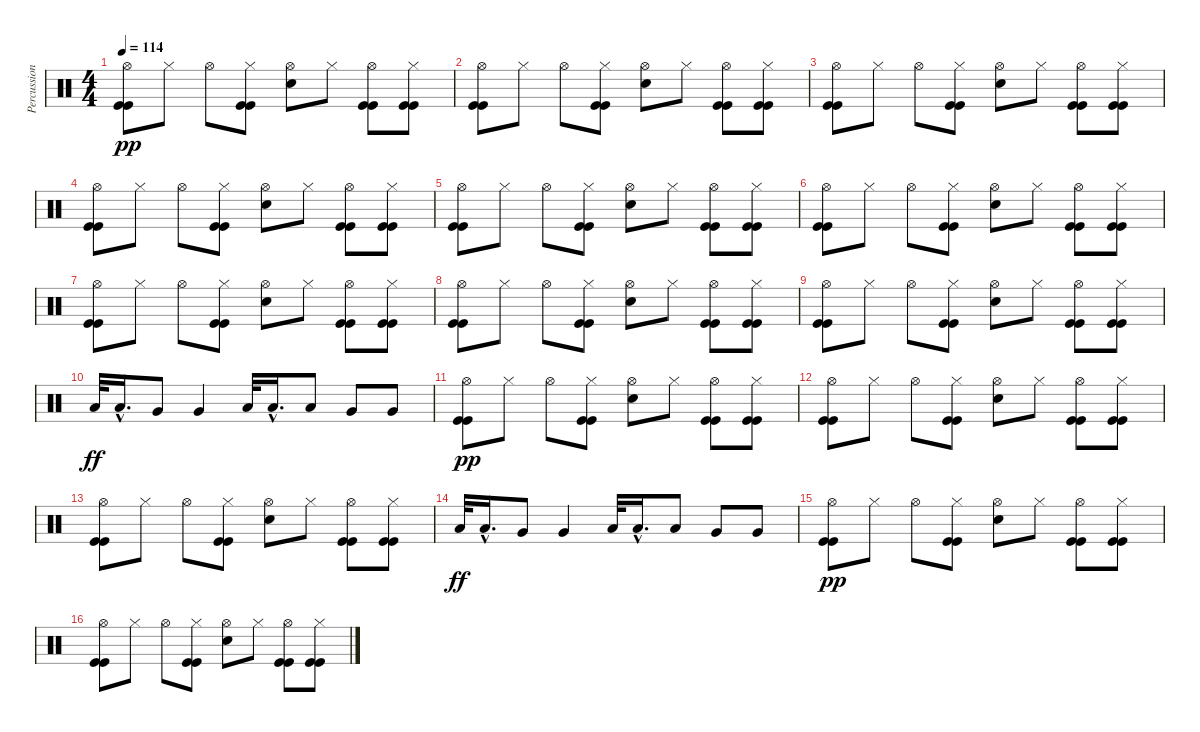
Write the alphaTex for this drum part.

\track ("Percussion" "Percussion") {instrument percussion}
\staff {score}
\articulation defaults
\ts (4 4)
\tempo 114
\clef neutral
\ks c
("Kick (hit)" "Hi-Hat (open)" "Kick (hit)").8{dy pp} "Hi-Hat (closed)".8 "Hi-Hat (open)".8 ("Kick (hit)" "Hi-Hat (closed)" "Kick (hit)").8 ("Snare (hit) 2" "Hi-Hat (open)").8 "Hi-Hat (closed)".8 ("Kick (hit)" "Hi-Hat (open)" "Kick (hit)").8 ("Kick (hit)" "Hi-Hat (closed)" "Kick (hit)").8 |
("Kick (hit)" "Hi-Hat (open)" "Kick (hit)").8 "Hi-Hat (closed)".8 "Hi-Hat (open)".8 ("Kick (hit)" "Hi-Hat (closed)" "Kick (hit)").8 ("Snare (hit) 2" "Hi-Hat (open)").8 "Hi-Hat (closed)".8 ("Kick (hit)" "Hi-Hat (open)" "Kick (hit)").8 ("Kick (hit)" "Hi-Hat (closed)" "Kick (hit)").8 |
("Kick (hit)" "Hi-Hat (open)" "Kick (hit)").8 "Hi-Hat (closed)".8 "Hi-Hat (open)".8 ("Kick (hit)" "Hi-Hat (closed)" "Kick (hit)").8 ("Snare (hit) 2" "Hi-Hat (open)").8 "Hi-Hat (closed)".8 ("Kick (hit)" "Hi-Hat (open)" "Kick (hit)").8 ("Kick (hit)" "Hi-Hat (closed)" "Kick (hit)").8 |
("Kick (hit)" "Hi-Hat (open)" "Kick (hit)").8 "Hi-Hat (closed)".8 "Hi-Hat (open)".8 ("Kick (hit)" "Hi-Hat (closed)" "Kick (hit)").8 ("Snare (hit) 2" "Hi-Hat (open)").8 "Hi-Hat (closed)".8 ("Kick (hit)" "Hi-Hat (open)" "Kick (hit)").8 ("Kick (hit)" "Hi-Hat (closed)" "Kick (hit)").8 |
("Kick (hit)" "Hi-Hat (open)" "Kick (hit)").8 "Hi-Hat (closed)".8 "Hi-Hat (open)".8 ("Kick (hit)" "Hi-Hat (closed)" "Kick (hit)").8 ("Snare (hit) 2" "Hi-Hat (open)").8 "Hi-Hat (closed)".8 ("Kick (hit)" "Hi-Hat (open)" "Kick (hit)").8 ("Kick (hit)" "Hi-Hat (closed)" "Kick (hit)").8 |
("Kick (hit)" "Hi-Hat (open)" "Kick (hit)").8 "Hi-Hat (closed)".8 "Hi-Hat (open)".8 ("Kick (hit)" "Hi-Hat (closed)" "Kick (hit)").8 ("Snare (hit) 2" "Hi-Hat (open)").8 "Hi-Hat (closed)".8 ("Kick (hit)" "Hi-Hat (open)" "Kick (hit)").8 ("Kick (hit)" "Hi-Hat (closed)" "Kick (hit)").8 |
("Kick (hit)" "Hi-Hat (open)" "Kick (hit)").8 "Hi-Hat (closed)".8 "Hi-Hat (open)".8 ("Kick (hit)" "Hi-Hat (closed)" "Kick (hit)").8 ("Snare (hit) 2" "Hi-Hat (open)").8 "Hi-Hat (closed)".8 ("Kick (hit)" "Hi-Hat (open)" "Kick (hit)").8 ("Kick (hit)" "Hi-Hat (closed)" "Kick (hit)").8 |
("Kick (hit)" "Hi-Hat (open)" "Kick (hit)").8 "Hi-Hat (closed)".8 "Hi-Hat (open)".8 ("Kick (hit)" "Hi-Hat (closed)" "Kick (hit)").8 ("Snare (hit) 2" "Hi-Hat (open)").8 "Hi-Hat (closed)".8 ("Kick (hit)" "Hi-Hat (open)" "Kick (hit)").8 ("Kick (hit)" "Hi-Hat (closed)" "Kick (hit)").8 |
("Kick (hit)" "Hi-Hat (open)" "Kick (hit)").8 "Hi-Hat (closed)".8 "Hi-Hat (open)".8 ("Kick (hit)" "Hi-Hat (closed)" "Kick (hit)").8 ("Snare (hit) 2" "Hi-Hat (open)").8 "Hi-Hat (closed)".8 ("Kick (hit)" "Hi-Hat (open)" "Kick (hit)").8 ("Kick (hit)" "Hi-Hat (closed)" "Kick (hit)").8 |
"Low Tom (hit)".32{dy ff} "Low Tom (hit)"{hac}.16{d} "Very Low Tom (hit)".8 "Very Low Tom (hit)".4 "Low Tom (hit)".32 "Low Tom (hit)"{hac}.16{d} "Low Tom (hit)".8 "Very Low Tom (hit)".8 "Very Low Tom (hit)".8 |
("Kick (hit)" "Hi-Hat (open)" "Kick (hit)").8{dy pp} "Hi-Hat (closed)".8 "Hi-Hat (open)".8 ("Kick (hit)" "Hi-Hat (closed)" "Kick (hit)").8 ("Snare (hit) 2" "Hi-Hat (open)").8 "Hi-Hat (closed)".8 ("Kick (hit)" "Hi-Hat (open)" "Kick (hit)").8 ("Kick (hit)" "Hi-Hat (closed)" "Kick (hit)").8 |
("Kick (hit)" "Hi-Hat (open)" "Kick (hit)").8 "Hi-Hat (closed)".8 "Hi-Hat (open)".8 ("Kick (hit)" "Hi-Hat (closed)" "Kick (hit)").8 ("Snare (hit) 2" "Hi-Hat (open)").8 "Hi-Hat (closed)".8 ("Kick (hit)" "Hi-Hat (open)" "Kick (hit)").8 ("Kick (hit)" "Hi-Hat (closed)" "Kick (hit)").8 |
("Kick (hit)" "Hi-Hat (open)" "Kick (hit)").8 "Hi-Hat (closed)".8 "Hi-Hat (open)".8 ("Kick (hit)" "Hi-Hat (closed)" "Kick (hit)").8 ("Snare (hit) 2" "Hi-Hat (open)").8 "Hi-Hat (closed)".8 ("Kick (hit)" "Hi-Hat (open)" "Kick (hit)").8 ("Kick (hit)" "Hi-Hat (closed)" "Kick (hit)").8 |
"Low Tom (hit)".32{dy ff} "Low Tom (hit)"{hac}.16{d} "Very Low Tom (hit)".8 "Very Low Tom (hit)".4 "Low Tom (hit)".32 "Low Tom (hit)"{hac}.16{d} "Low Tom (hit)".8 "Very Low Tom (hit)".8 "Very Low Tom (hit)".8 |
("Kick (hit)" "Hi-Hat (open)" "Kick (hit)").8{dy pp} "Hi-Hat (closed)".8 "Hi-Hat (open)".8 ("Kick (hit)" "Hi-Hat (closed)" "Kick (hit)").8 ("Snare (hit) 2" "Hi-Hat (open)").8 "Hi-Hat (closed)".8 ("Kick (hit)" "Hi-Hat (open)" "Kick (hit)").8 ("Kick (hit)" "Hi-Hat (closed)" "Kick (hit)").8 |
("Kick (hit)" "Hi-Hat (open)" "Kick (hit)").8 "Hi-Hat (closed)".8 "Hi-Hat (open)".8 ("Kick (hit)" "Hi-Hat (closed)" "Kick (hit)").8 ("Snare (hit) 2" "Hi-Hat (open)").8 "Hi-Hat (closed)".8 ("Kick (hit)" "Hi-Hat (open)" "Kick (hit)").8 ("Kick (hit)" "Hi-Hat (closed)" "Kick (hit)").8
